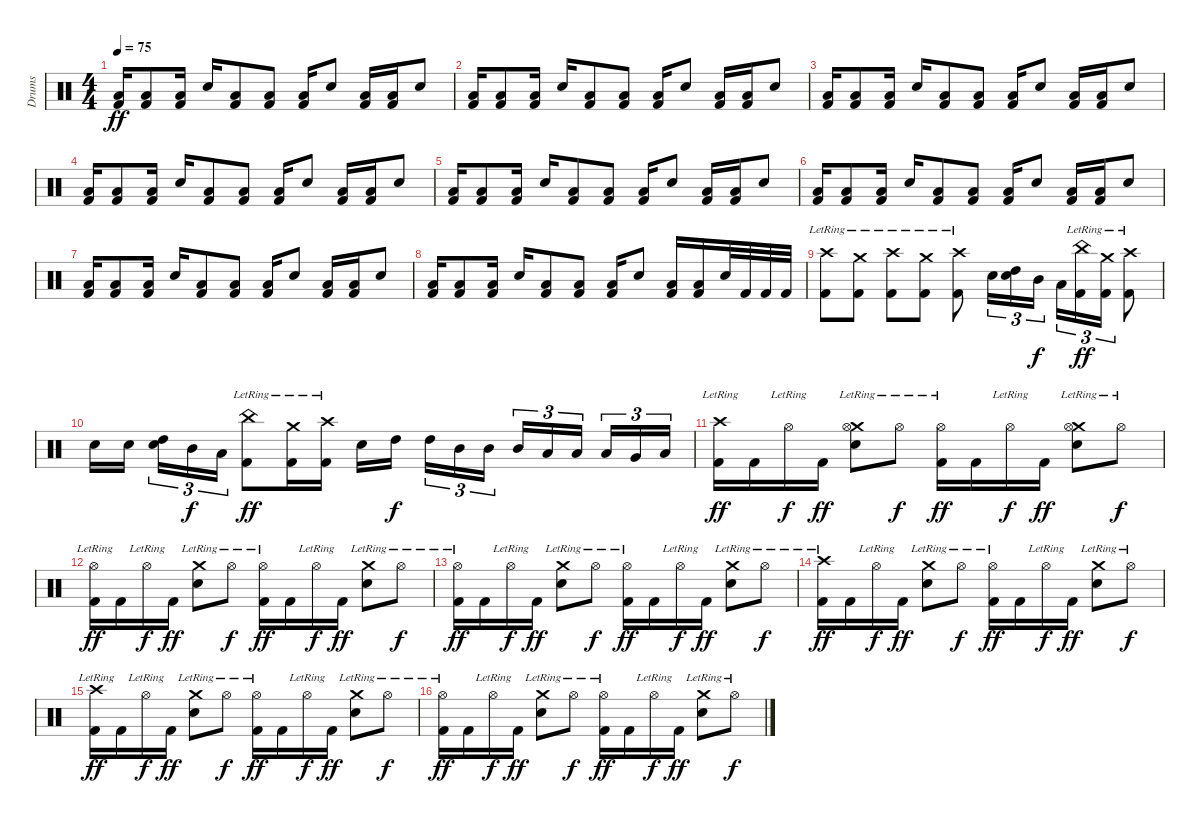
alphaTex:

\track ("Drums" "Drums") {instrument percussion}
\staff {score}
\articulation defaults
\ts (4 4)
\tempo 75
\clef neutral
\ks c
("Low Floor Tom (hit)" "Kick (hit) 2").16{dy ff} ("Low Floor Tom (hit)" "Kick (hit) 2").8 ("Low Floor Tom (hit)" "Kick (hit) 2").16 "Snare (hit) 2".16 ("Low Floor Tom (hit)" "Kick (hit) 2").8 ("Low Floor Tom (hit)" "Kick (hit) 2").8 ("Low Floor Tom (hit)" "Kick (hit) 2").16 "Snare (hit) 2".8 ("Low Floor Tom (hit)" "Kick (hit) 2").16 ("Low Floor Tom (hit)" "Kick (hit) 2").16 "Snare (hit) 2".8 |
("Low Floor Tom (hit)" "Kick (hit) 2").16 ("Low Floor Tom (hit)" "Kick (hit) 2").8 ("Low Floor Tom (hit)" "Kick (hit) 2").16 "Snare (hit) 2".16 ("Low Floor Tom (hit)" "Kick (hit) 2").8 ("Low Floor Tom (hit)" "Kick (hit) 2").8 ("Low Floor Tom (hit)" "Kick (hit) 2").16 "Snare (hit) 2".8 ("Low Floor Tom (hit)" "Kick (hit) 2").16 ("Low Floor Tom (hit)" "Kick (hit) 2").16 "Snare (hit) 2".8 |
("Low Floor Tom (hit)" "Kick (hit) 2").16 ("Low Floor Tom (hit)" "Kick (hit) 2").8 ("Low Floor Tom (hit)" "Kick (hit) 2").16 "Snare (hit) 2".16 ("Low Floor Tom (hit)" "Kick (hit) 2").8 ("Low Floor Tom (hit)" "Kick (hit) 2").8 ("Low Floor Tom (hit)" "Kick (hit) 2").16 "Snare (hit) 2".8 ("Low Floor Tom (hit)" "Kick (hit) 2").16 ("Low Floor Tom (hit)" "Kick (hit) 2").16 "Snare (hit) 2".8 |
("Low Floor Tom (hit)" "Kick (hit) 2").16 ("Low Floor Tom (hit)" "Kick (hit) 2").8 ("Low Floor Tom (hit)" "Kick (hit) 2").16 "Snare (hit) 2".16 ("Low Floor Tom (hit)" "Kick (hit) 2").8 ("Low Floor Tom (hit)" "Kick (hit) 2").8 ("Low Floor Tom (hit)" "Kick (hit) 2").16 "Snare (hit) 2".8 ("Low Floor Tom (hit)" "Kick (hit) 2").16 ("Low Floor Tom (hit)" "Kick (hit) 2").16 "Snare (hit) 2".8 |
("Low Floor Tom (hit)" "Kick (hit) 2").16 ("Low Floor Tom (hit)" "Kick (hit) 2").8 ("Low Floor Tom (hit)" "Kick (hit) 2").16 "Snare (hit) 2".16 ("Low Floor Tom (hit)" "Kick (hit) 2").8 ("Low Floor Tom (hit)" "Kick (hit) 2").8 ("Low Floor Tom (hit)" "Kick (hit) 2").16 "Snare (hit) 2".8 ("Low Floor Tom (hit)" "Kick (hit) 2").16 ("Low Floor Tom (hit)" "Kick (hit) 2").16 "Snare (hit) 2".8 |
("Low Floor Tom (hit)" "Kick (hit) 2").16 ("Low Floor Tom (hit)" "Kick (hit) 2").8 ("Low Floor Tom (hit)" "Kick (hit) 2").16 "Snare (hit) 2".16 ("Low Floor Tom (hit)" "Kick (hit) 2").8 ("Low Floor Tom (hit)" "Kick (hit) 2").8 ("Low Floor Tom (hit)" "Kick (hit) 2").16 "Snare (hit) 2".8 ("Low Floor Tom (hit)" "Kick (hit) 2").16 ("Low Floor Tom (hit)" "Kick (hit) 2").16 "Snare (hit) 2".8 |
("Low Floor Tom (hit)" "Kick (hit) 2").16 ("Low Floor Tom (hit)" "Kick (hit) 2").8 ("Low Floor Tom (hit)" "Kick (hit) 2").16 "Snare (hit) 2".16 ("Low Floor Tom (hit)" "Kick (hit) 2").8 ("Low Floor Tom (hit)" "Kick (hit) 2").8 ("Low Floor Tom (hit)" "Kick (hit) 2").16 "Snare (hit) 2".8 ("Low Floor Tom (hit)" "Kick (hit) 2").16 ("Low Floor Tom (hit)" "Kick (hit) 2").16 "Snare (hit) 2".8 |
("Low Floor Tom (hit)" "Kick (hit) 2").16 ("Low Floor Tom (hit)" "Kick (hit) 2").8 ("Low Floor Tom (hit)" "Kick (hit) 2").16 "Snare (hit) 2".16 ("Low Floor Tom (hit)" "Kick (hit) 2").8 ("Low Floor Tom (hit)" "Kick (hit) 2").8 ("Low Floor Tom (hit)" "Kick (hit) 2").16 "Snare (hit) 2".8 ("Low Floor Tom (hit)" "Kick (hit) 2").16 ("Low Floor Tom (hit)" "Kick (hit) 2").16 "Snare (hit) 2".32 "Kick (hit) 2".32 "Kick (hit) 2".32 "Kick (hit) 2".32 |
("Crash high (hit)"{lr} "Kick (hit) 2").8 ("Crash medium (hit)"{lr} "Kick (hit) 2").8 ("Crash high (hit)"{lr} "Kick (hit) 2").8 ("Crash medium (hit)"{lr} "Kick (hit) 2").8 ("Crash high (hit)"{lr} "Kick (hit) 2").8 "Snare (hit) 2".16{tu (3 2)} ("Snare (hit) 2" "High Tom (hit)").16{tu (3 2)} "Mid Tom (hit)".16{tu (3 2) dy f} "Low Tom (hit)".16{tu (3 2)} ("China (hit)"{lr} "Kick (hit) 2").16{tu (3 2) dy ff} ("Crash medium (hit)"{lr} "Kick (hit) 2").16{tu (3 2)} ("Crash high (hit)"{lr} "Kick (hit) 2").8 |
"Snare (hit) 2".16 "Snare (hit) 2".16 ("Snare (hit) 2" "High Tom (hit)").16{tu (3 2)} "Mid Tom (hit)".16{tu (3 2) dy f} "Low Tom (hit)".16{tu (3 2)} ("China (hit)"{lr} "Kick (hit) 2").8{dy ff} ("Crash medium (hit)"{lr} "Kick (hit) 2").16 ("Crash high (hit)"{lr} "Kick (hit) 2").16 "Snare (hit) 2".16 "High Tom (hit)".16{dy f} "High Tom (hit)".16{tu (3 2)} "Mid Tom (hit)".16{tu (3 2)} "Mid Tom (hit)".16{tu (3 2)} "Mid Tom (hit)".16{tu (3 2)} "Low Tom (hit)".16{tu (3 2)} "Low Tom (hit)".16{tu (3 2)} "Low Tom (hit)".16{tu (3 2)} "Very Low Tom (hit)".16{tu (3 2)} "Low Floor Tom (hit)".16{tu (3 2)} |
("Crash high (hit)"{lr} "Kick (hit) 2").16{dy ff} "Kick (hit) 2".16 "Hi-Hat (open)"{lr}.16{dy f} "Kick (hit) 2".16{dy ff} ("Crash medium (hit)"{lr} "Hi-Hat (open)"{lr} "Snare (hit) 2").8 "Hi-Hat (open)"{lr}.8{dy f} ("Hi-Hat (open)"{lr} "Kick (hit) 2").16{dy ff} "Kick (hit) 2".16 "Hi-Hat (open)"{lr}.16{dy f} "Kick (hit) 2".16{dy ff} ("Crash medium (hit)"{lr} "Hi-Hat (open)"{lr} "Snare (hit) 2").8 "Hi-Hat (open)"{lr}.8{dy f} |
("Hi-Hat (open)"{lr} "Kick (hit) 2").16{dy ff} "Kick (hit) 2".16 "Hi-Hat (open)"{lr}.16{dy f} "Kick (hit) 2".16{dy ff} ("Crash medium (hit)"{lr} "Snare (hit) 2").8 "Hi-Hat (open)"{lr}.8{dy f} ("Hi-Hat (open)"{lr} "Kick (hit) 2").16{dy ff} "Kick (hit) 2".16 "Hi-Hat (open)"{lr}.16{dy f} "Kick (hit) 2".16{dy ff} ("Crash medium (hit)"{lr} "Snare (hit) 2").8 "Hi-Hat (open)"{lr}.8{dy f} |
("Hi-Hat (open)"{lr} "Kick (hit) 2").16{dy ff} "Kick (hit) 2".16 "Hi-Hat (open)"{lr}.16{dy f} "Kick (hit) 2".16{dy ff} ("Crash medium (hit)"{lr} "Snare (hit) 2").8 "Hi-Hat (open)"{lr}.8{dy f} ("Hi-Hat (open)"{lr} "Kick (hit) 2").16{dy ff} "Kick (hit) 2".16 "Hi-Hat (open)"{lr}.16{dy f} "Kick (hit) 2".16{dy ff} ("Crash medium (hit)"{lr} "Snare (hit) 2").8 "Hi-Hat (open)"{lr}.8{dy f} |
("Crash high (hit)"{lr} "Kick (hit) 2").16{dy ff} "Kick (hit) 2".16 "Hi-Hat (open)"{lr}.16{dy f} "Kick (hit) 2".16{dy ff} ("Crash medium (hit)"{lr} "Snare (hit) 2").8 "Hi-Hat (open)"{lr}.8{dy f} ("Hi-Hat (open)"{lr} "Kick (hit) 2").16{dy ff} "Kick (hit) 2".16 "Hi-Hat (open)"{lr}.16{dy f} "Kick (hit) 2".16{dy ff} ("Crash medium (hit)"{lr} "Snare (hit) 2").8 "Hi-Hat (open)"{lr}.8{dy f} |
("Crash high (hit)"{lr} "Kick (hit) 2").16{dy ff} "Kick (hit) 2".16 "Hi-Hat (open)"{lr}.16{dy f} "Kick (hit) 2".16{dy ff} ("Crash medium (hit)"{lr} "Snare (hit) 2").8 "Hi-Hat (open)"{lr}.8{dy f} ("Hi-Hat (open)"{lr} "Kick (hit) 2").16{dy ff} "Kick (hit) 2".16 "Hi-Hat (open)"{lr}.16{dy f} "Kick (hit) 2".16{dy ff} ("Crash medium (hit)"{lr} "Snare (hit) 2").8 "Hi-Hat (open)"{lr}.8{dy f} |
("Hi-Hat (open)"{lr} "Kick (hit) 2").16{dy ff} "Kick (hit) 2".16 "Hi-Hat (open)"{lr}.16{dy f} "Kick (hit) 2".16{dy ff} ("Crash medium (hit)"{lr} "Snare (hit) 2").8 "Hi-Hat (open)"{lr}.8{dy f} ("Hi-Hat (open)"{lr} "Kick (hit) 2").16{dy ff} "Kick (hit) 2".16 "Hi-Hat (open)"{lr}.16{dy f} "Kick (hit) 2".16{dy ff} ("Crash medium (hit)"{lr} "Snare (hit) 2").8 "Hi-Hat (open)"{lr}.8{dy f}
